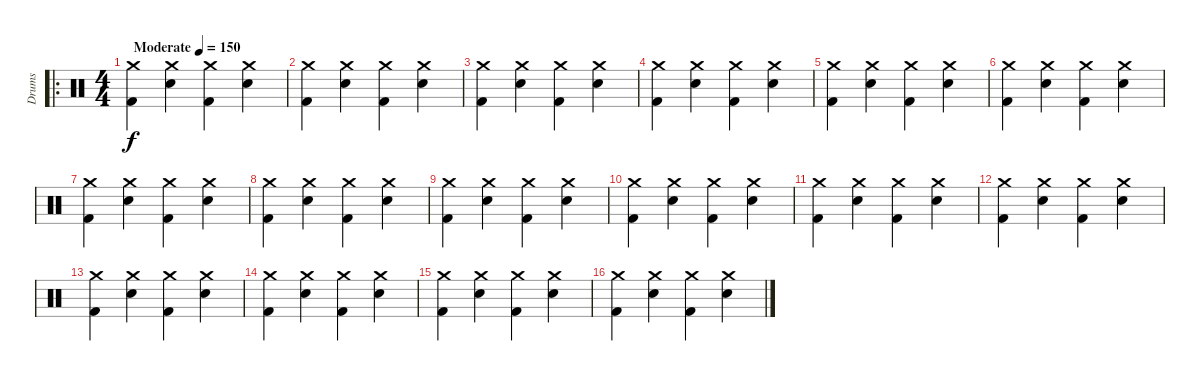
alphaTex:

\track ("Drums" "Drums") {instrument percussion}
\staff {score}
\articulation defaults
\ro
\ts (4 4)
\tempo (150 "Moderate")
\clef neutral
\ks c
("Kick (hit) 2" "Crash medium (hit)").4{dy f} ("Snare (hit) 2" "Crash medium (hit)").4 ("Kick (hit) 2" "Crash medium (hit)").4 ("Snare (hit) 2" "Crash medium (hit)").4 |
("Kick (hit) 2" "Crash medium (hit)").4 ("Snare (hit) 2" "Crash medium (hit)").4 ("Kick (hit) 2" "Crash medium (hit)").4 ("Snare (hit) 2" "Crash medium (hit)").4 |
("Kick (hit) 2" "Crash medium (hit)").4 ("Snare (hit) 2" "Crash medium (hit)").4 ("Kick (hit) 2" "Crash medium (hit)").4 ("Snare (hit) 2" "Crash medium (hit)").4 |
("Kick (hit) 2" "Crash medium (hit)").4 ("Snare (hit) 2" "Crash medium (hit)").4 ("Kick (hit) 2" "Crash medium (hit)").4 ("Snare (hit) 2" "Crash medium (hit)").4 |
("Kick (hit) 2" "Crash medium (hit)").4 ("Snare (hit) 2" "Crash medium (hit)").4 ("Kick (hit) 2" "Crash medium (hit)").4 ("Snare (hit) 2" "Crash medium (hit)").4 |
("Kick (hit) 2" "Crash medium (hit)").4 ("Snare (hit) 2" "Crash medium (hit)").4 ("Kick (hit) 2" "Crash medium (hit)").4 ("Snare (hit) 2" "Crash medium (hit)").4 |
("Kick (hit) 2" "Crash medium (hit)").4 ("Snare (hit) 2" "Crash medium (hit)").4 ("Kick (hit) 2" "Crash medium (hit)").4 ("Snare (hit) 2" "Crash medium (hit)").4 |
("Kick (hit) 2" "Crash medium (hit)").4 ("Snare (hit) 2" "Crash medium (hit)").4 ("Kick (hit) 2" "Crash medium (hit)").4 ("Snare (hit) 2" "Crash medium (hit)").4 |
("Kick (hit) 2" "Crash medium (hit)").4 ("Snare (hit) 2" "Crash medium (hit)").4 ("Kick (hit) 2" "Crash medium (hit)").4 ("Snare (hit) 2" "Crash medium (hit)").4 |
("Kick (hit) 2" "Crash medium (hit)").4 ("Snare (hit) 2" "Crash medium (hit)").4 ("Kick (hit) 2" "Crash medium (hit)").4 ("Snare (hit) 2" "Crash medium (hit)").4 |
("Kick (hit) 2" "Crash medium (hit)").4 ("Snare (hit) 2" "Crash medium (hit)").4 ("Kick (hit) 2" "Crash medium (hit)").4 ("Snare (hit) 2" "Crash medium (hit)").4 |
("Kick (hit) 2" "Crash medium (hit)").4 ("Snare (hit) 2" "Crash medium (hit)").4 ("Kick (hit) 2" "Crash medium (hit)").4 ("Snare (hit) 2" "Crash medium (hit)").4 |
("Kick (hit) 2" "Crash medium (hit)").4 ("Snare (hit) 2" "Crash medium (hit)").4 ("Kick (hit) 2" "Crash medium (hit)").4 ("Snare (hit) 2" "Crash medium (hit)").4 |
("Kick (hit) 2" "Crash medium (hit)").4 ("Snare (hit) 2" "Crash medium (hit)").4 ("Kick (hit) 2" "Crash medium (hit)").4 ("Snare (hit) 2" "Crash medium (hit)").4 |
("Kick (hit) 2" "Crash medium (hit)").4 ("Snare (hit) 2" "Crash medium (hit)").4 ("Kick (hit) 2" "Crash medium (hit)").4 ("Snare (hit) 2" "Crash medium (hit)").4 |
("Kick (hit) 2" "Crash medium (hit)").4 ("Snare (hit) 2" "Crash medium (hit)").4 ("Kick (hit) 2" "Crash medium (hit)").4 ("Snare (hit) 2" "Crash medium (hit)").4
